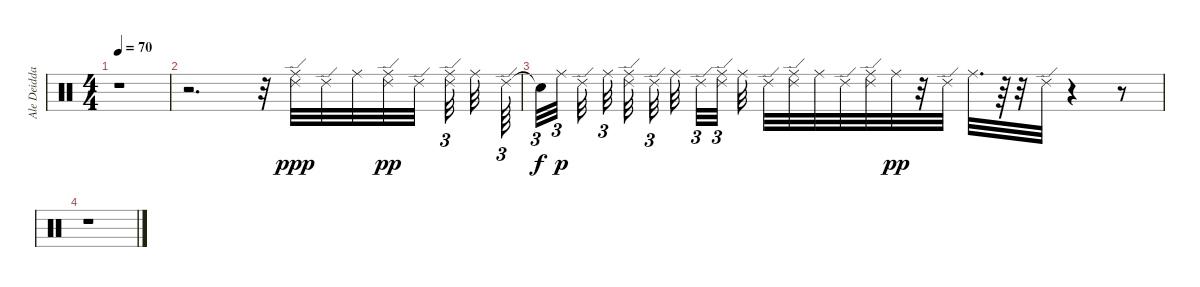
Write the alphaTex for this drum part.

\track ("Ale Deidda" "Ale Deidda") {instrument percussion}
\staff {score}
\articulation defaults
\ts (4 4)
\tempo 70
\clef neutral
\ks c
r.1{dy mf} |
r.2{d} r.32 ("Ride (edge) 2" "Ride (middle)").32{dy ppp} "Ride (edge) 2".32 "Ride (middle)".32 ("Ride (edge) 2" "Ride (middle)").32{dy pp} "Ride (edge) 2".32{beam splitsecondary} ("Ride (middle)" "Ride (edge) 2").32{tu (3 2) beam splitsecondary} "Ride (middle)".32 "Ride (edge) 2".64{tu (3 2)} |
"Snare (hit)"{t}.32{tu (3 2) dy f} "Ride (middle)".32{tu (3 2) dy p beam splitsecondary} "Ride (edge) 2".32{beam splitsecondary} "Ride (middle)".32{tu (3 2) beam splitsecondary} ("Ride (edge) 2" "Ride (middle)").32{beam splitsecondary} "Ride (edge) 2".32{tu (3 2) beam splitsecondary} "Ride (middle)".32{beam splitsecondary} "Ride (edge) 2".32{tu (3 2)} ("Ride (middle)" "Ride (edge) 2").32{tu (3 2) beam splitsecondary} "Ride (middle)".32 "Ride (edge) 2".32 ("Ride (middle)" "Ride (edge) 2").32 "Ride (middle)".32 "Ride (edge) 2".32 ("Ride (middle)" "Ride (edge) 2").32 "Ride (middle)".32{dy pp} r.32 "Ride (edge) 2".32 "Ride (middle)".32{d} r.64 r.32 "Ride (edge) 2".32 r.4 r.8 |
r.1
